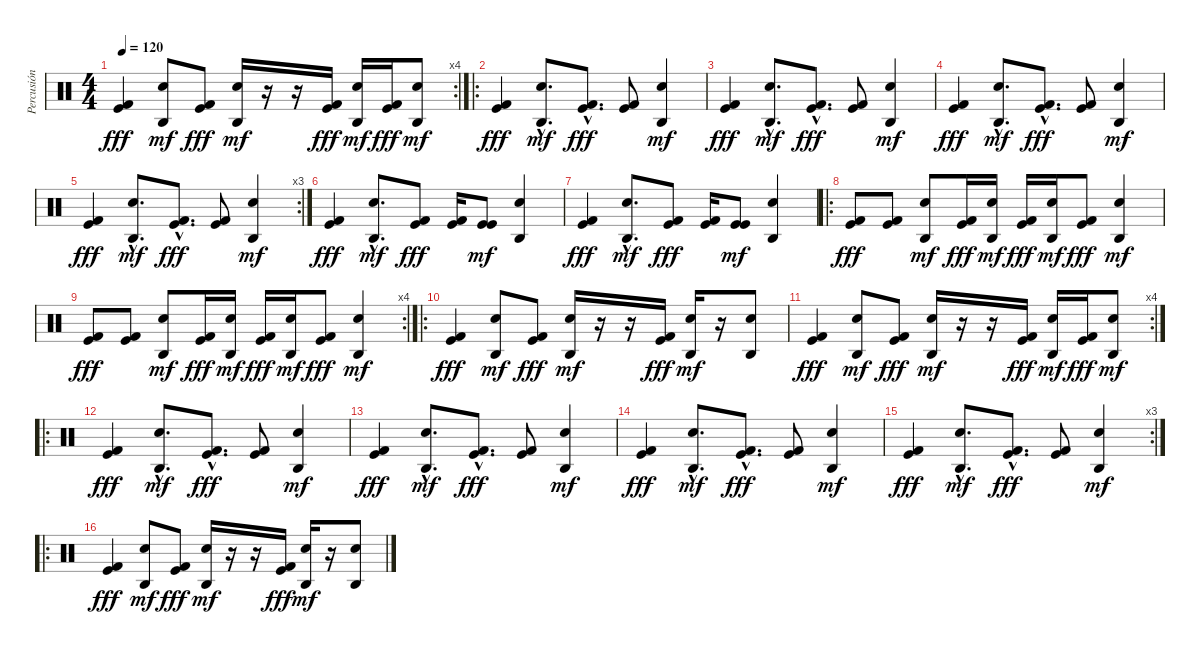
\track ("Percusión" "Percusión") {instrument percussion}
\staff {score}
\articulation defaults
\rc 4
\ts (4 4)
\tempo 120
\clef neutral
\ks c
("Kick (hit)" "Kick (hit) 2").4{dy fff} ("Electric Snare (hit)" "Agogo high (hit)").8{dy mf} ("Kick (hit)" "Kick (hit) 2").8{dy fff} ("Electric Snare (hit)" "Agogo high (hit)").16{dy mf} r.16 r.16 ("Kick (hit)" "Kick (hit) 2").16{dy fff} ("Electric Snare (hit)" "Agogo high (hit)").16{dy mf} ("Kick (hit)" "Kick (hit) 2").16{dy fff} ("Electric Snare (hit)" "Agogo high (hit)").8{dy mf} |
\ro
("Kick (hit)" "Kick (hit) 2").4{dy fff} ("Electric Snare (hit)"{hac} "Agogo high (hit)"{hac}).8{d dy mf} ("Kick (hit)"{hac} "Kick (hit) 2"{hac}).8{d dy fff} ("Kick (hit)" "Kick (hit) 2").8 ("Electric Snare (hit)" "Agogo high (hit)").4{dy mf} |
("Kick (hit)" "Kick (hit) 2").4{dy fff} ("Electric Snare (hit)"{hac} "Agogo high (hit)"{hac}).8{d dy mf} ("Kick (hit)"{hac} "Kick (hit) 2"{hac}).8{d dy fff} ("Kick (hit)" "Kick (hit) 2").8 ("Electric Snare (hit)" "Agogo high (hit)").4{dy mf} |
("Kick (hit)" "Kick (hit) 2").4{dy fff} ("Electric Snare (hit)"{hac} "Agogo high (hit)"{hac}).8{d dy mf} ("Kick (hit)"{hac} "Kick (hit) 2"{hac}).8{d dy fff} ("Kick (hit)" "Kick (hit) 2").8 ("Electric Snare (hit)" "Agogo high (hit)").4{dy mf} |
\rc 3
("Kick (hit)" "Kick (hit) 2").4{dy fff} ("Electric Snare (hit)"{hac} "Agogo high (hit)"{hac}).8{d dy mf} ("Kick (hit)"{hac} "Kick (hit) 2"{hac}).8{d dy fff} ("Kick (hit)" "Kick (hit) 2").8 ("Electric Snare (hit)" "Agogo high (hit)").4{dy mf} |
("Kick (hit)" "Kick (hit) 2").4{dy fff} ("Electric Snare (hit)"{hac} "Agogo high (hit)"{hac}).8{d dy mf} ("Kick (hit)" "Kick (hit) 2").8{dy fff} ("Kick (hit)" "Kick (hit) 2").16 ("Kick (hit)" "Kick (hit)").8{dy mf} ("Electric Snare (hit)" "Agogo high (hit)").4 |
("Kick (hit)" "Kick (hit) 2").4{dy fff} ("Electric Snare (hit)"{hac} "Agogo high (hit)"{hac}).8{d dy mf} ("Kick (hit)" "Kick (hit) 2").8{dy fff} ("Kick (hit)" "Kick (hit) 2").16 ("Kick (hit)" "Kick (hit)").8{dy mf} ("Electric Snare (hit)" "Agogo high (hit)").4 |
\ro
("Kick (hit)" "Kick (hit) 2").8{dy fff} ("Kick (hit)" "Kick (hit) 2").8 ("Electric Snare (hit)" "Agogo high (hit)").8{dy mf} ("Kick (hit)" "Kick (hit) 2").16{dy fff} ("Electric Snare (hit)" "Agogo high (hit)").16{dy mf} ("Kick (hit)" "Kick (hit) 2").16{dy fff} ("Electric Snare (hit)" "Agogo high (hit)").16{dy mf} ("Kick (hit)" "Kick (hit) 2").8{dy fff} ("Electric Snare (hit)" "Agogo high (hit)").4{dy mf} |
\rc 4
("Kick (hit)" "Kick (hit) 2").8{dy fff} ("Kick (hit)" "Kick (hit) 2").8 ("Electric Snare (hit)" "Agogo high (hit)").8{dy mf} ("Kick (hit)" "Kick (hit) 2").16{dy fff} ("Electric Snare (hit)" "Agogo high (hit)").16{dy mf} ("Kick (hit)" "Kick (hit) 2").16{dy fff} ("Electric Snare (hit)" "Agogo high (hit)").16{dy mf} ("Kick (hit)" "Kick (hit) 2").8{dy fff} ("Electric Snare (hit)" "Agogo high (hit)").4{dy mf} |
\ro
("Kick (hit)" "Kick (hit) 2").4{dy fff} ("Electric Snare (hit)" "Agogo high (hit)").8{dy mf} ("Kick (hit)" "Kick (hit) 2").8{dy fff} ("Electric Snare (hit)" "Agogo high (hit)").16{dy mf} r.16 r.16 ("Kick (hit)" "Kick (hit) 2").16{dy fff} ("Electric Snare (hit)" "Agogo high (hit)").16{dy mf} r.16 ("Electric Snare (hit)" "Agogo high (hit)").8 |
\rc 4
("Kick (hit)" "Kick (hit) 2").4{dy fff} ("Electric Snare (hit)" "Agogo high (hit)").8{dy mf} ("Kick (hit)" "Kick (hit) 2").8{dy fff} ("Electric Snare (hit)" "Agogo high (hit)").16{dy mf} r.16 r.16 ("Kick (hit)" "Kick (hit) 2").16{dy fff} ("Electric Snare (hit)" "Agogo high (hit)").16{dy mf} ("Kick (hit)" "Kick (hit) 2").16{dy fff} ("Electric Snare (hit)" "Agogo high (hit)").8{dy mf} |
\ro
("Kick (hit)" "Kick (hit) 2").4{dy fff} ("Electric Snare (hit)"{hac} "Agogo high (hit)"{hac}).8{d dy mf} ("Kick (hit)"{hac} "Kick (hit) 2"{hac}).8{d dy fff} ("Kick (hit)" "Kick (hit) 2").8 ("Electric Snare (hit)" "Agogo high (hit)").4{dy mf} |
("Kick (hit)" "Kick (hit) 2").4{dy fff} ("Electric Snare (hit)"{hac} "Agogo high (hit)"{hac}).8{d dy mf} ("Kick (hit)"{hac} "Kick (hit) 2"{hac}).8{d dy fff} ("Kick (hit)" "Kick (hit) 2").8 ("Electric Snare (hit)" "Agogo high (hit)").4{dy mf} |
("Kick (hit)" "Kick (hit) 2").4{dy fff} ("Electric Snare (hit)"{hac} "Agogo high (hit)"{hac}).8{d dy mf} ("Kick (hit)"{hac} "Kick (hit) 2"{hac}).8{d dy fff} ("Kick (hit)" "Kick (hit) 2").8 ("Electric Snare (hit)" "Agogo high (hit)").4{dy mf} |
\rc 3
("Kick (hit)" "Kick (hit) 2").4{dy fff} ("Electric Snare (hit)"{hac} "Agogo high (hit)"{hac}).8{d dy mf} ("Kick (hit)"{hac} "Kick (hit) 2"{hac}).8{d dy fff} ("Kick (hit)" "Kick (hit) 2").8 ("Electric Snare (hit)" "Agogo high (hit)").4{dy mf} |
\ro
("Kick (hit)" "Kick (hit) 2").4{dy fff} ("Electric Snare (hit)" "Agogo high (hit)").8{dy mf} ("Kick (hit)" "Kick (hit) 2").8{dy fff} ("Electric Snare (hit)" "Agogo high (hit)").16{dy mf} r.16 r.16 ("Kick (hit)" "Kick (hit) 2").16{dy fff} ("Electric Snare (hit)" "Agogo high (hit)").16{dy mf} r.16 ("Electric Snare (hit)" "Agogo high (hit)").8
